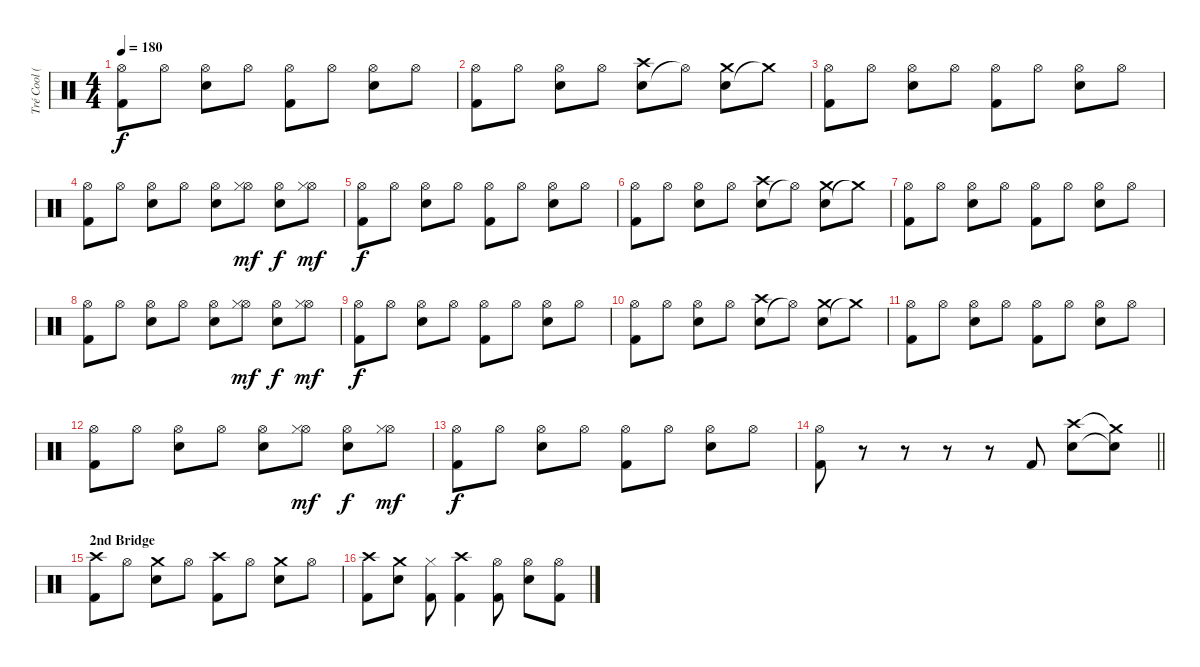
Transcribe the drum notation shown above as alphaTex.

\track ("Tré Cool (Drums)" "Tré Cool (") {instrument percussion}
\staff {score}
\articulation defaults
\ts (4 4)
\tempo 180
\clef neutral
\ks c
("Kick (hit) 2" "Hi-Hat (open)").8{dy f} "Hi-Hat (open)".8 ("Snare (hit) 2" "Hi-Hat (open)").8 "Hi-Hat (open)".8 ("Kick (hit) 2" "Hi-Hat (open)").8 "Hi-Hat (open)".8 ("Snare (hit) 2" "Hi-Hat (open)").8 "Hi-Hat (open)".8 |
("Kick (hit) 2" "Hi-Hat (open)").8 "Hi-Hat (open)".8 ("Snare (hit) 2" "Hi-Hat (open)").8 "Hi-Hat (open)".8 ("Snare (hit) 2" "Crash high (hit)").8 "Hi-Hat (open)"{t}.8 ("Snare (hit) 2" "Crash medium (hit)").8 "Crash medium (hit)"{t}.8 |
("Kick (hit) 2" "Hi-Hat (open)").8 "Hi-Hat (open)".8 ("Snare (hit) 2" "Hi-Hat (open)").8 "Hi-Hat (open)".8 ("Kick (hit) 2" "Hi-Hat (open)").8 "Hi-Hat (open)".8 ("Snare (hit) 2" "Hi-Hat (open)").8 "Hi-Hat (open)".8 |
("Kick (hit) 2" "Hi-Hat (open)").8 "Hi-Hat (open)".8 ("Snare (hit) 2" "Hi-Hat (open)").8 "Hi-Hat (open)".8 ("Snare (hit) 2" "Hi-Hat (open)").8 ("Hi-Hat (open)" "Hi-Hat (closed)").8{dy mf} ("Snare (hit) 2" "Hi-Hat (open)").8{dy f} ("Hi-Hat (open)" "Hi-Hat (closed)").8{dy mf} |
("Kick (hit) 2" "Hi-Hat (open)").8{dy f} "Hi-Hat (open)".8 ("Snare (hit) 2" "Hi-Hat (open)").8 "Hi-Hat (open)".8 ("Kick (hit) 2" "Hi-Hat (open)").8 "Hi-Hat (open)".8 ("Snare (hit) 2" "Hi-Hat (open)").8 "Hi-Hat (open)".8 |
("Kick (hit) 2" "Hi-Hat (open)").8 "Hi-Hat (open)".8 ("Snare (hit) 2" "Hi-Hat (open)").8 "Hi-Hat (open)".8 ("Snare (hit) 2" "Crash high (hit)").8 "Hi-Hat (open)"{t}.8 ("Snare (hit) 2" "Crash medium (hit)").8 "Crash medium (hit)"{t}.8 |
("Kick (hit) 2" "Hi-Hat (open)").8 "Hi-Hat (open)".8 ("Snare (hit) 2" "Hi-Hat (open)").8 "Hi-Hat (open)".8 ("Kick (hit) 2" "Hi-Hat (open)").8 "Hi-Hat (open)".8 ("Snare (hit) 2" "Hi-Hat (open)").8 "Hi-Hat (open)".8 |
("Kick (hit) 2" "Hi-Hat (open)").8 "Hi-Hat (open)".8 ("Snare (hit) 2" "Hi-Hat (open)").8 "Hi-Hat (open)".8 ("Snare (hit) 2" "Hi-Hat (open)").8 ("Hi-Hat (open)" "Hi-Hat (closed)").8{dy mf} ("Snare (hit) 2" "Hi-Hat (open)").8{dy f} ("Hi-Hat (open)" "Hi-Hat (closed)").8{dy mf} |
("Kick (hit) 2" "Hi-Hat (open)").8{dy f} "Hi-Hat (open)".8 ("Snare (hit) 2" "Hi-Hat (open)").8 "Hi-Hat (open)".8 ("Kick (hit) 2" "Hi-Hat (open)").8 "Hi-Hat (open)".8 ("Snare (hit) 2" "Hi-Hat (open)").8 "Hi-Hat (open)".8 |
("Kick (hit) 2" "Hi-Hat (open)").8 "Hi-Hat (open)".8 ("Snare (hit) 2" "Hi-Hat (open)").8 "Hi-Hat (open)".8 ("Snare (hit) 2" "Crash high (hit)").8 "Hi-Hat (open)"{t}.8 ("Snare (hit) 2" "Crash medium (hit)").8 "Crash medium (hit)"{t}.8 |
("Kick (hit) 2" "Hi-Hat (open)").8 "Hi-Hat (open)".8 ("Snare (hit) 2" "Hi-Hat (open)").8 "Hi-Hat (open)".8 ("Kick (hit) 2" "Hi-Hat (open)").8 "Hi-Hat (open)".8 ("Snare (hit) 2" "Hi-Hat (open)").8 "Hi-Hat (open)".8 |
("Kick (hit) 2" "Hi-Hat (open)").8 "Hi-Hat (open)".8 ("Snare (hit) 2" "Hi-Hat (open)").8 "Hi-Hat (open)".8 ("Snare (hit) 2" "Hi-Hat (open)").8 ("Hi-Hat (open)" "Hi-Hat (closed)").8{dy mf} ("Snare (hit) 2" "Hi-Hat (open)").8{dy f} ("Hi-Hat (open)" "Hi-Hat (closed)").8{dy mf} |
("Kick (hit) 2" "Hi-Hat (open)").8{dy f} "Hi-Hat (open)".8 ("Snare (hit) 2" "Hi-Hat (open)").8 "Hi-Hat (open)".8 ("Kick (hit) 2" "Hi-Hat (open)").8 "Hi-Hat (open)".8 ("Snare (hit) 2" "Hi-Hat (open)").8 "Hi-Hat (open)".8 |
\barLineRight lightlight
("Kick (hit) 2" "Hi-Hat (open)").8 r.8 r.8 r.8 r.8 "Kick (hit) 2".8 ("Snare (hit) 2" "Crash high (hit)").8 ("Snare (hit)"{t} "Crash medium (hit)"{t}).8 |
\section ("" "2nd Bridge")
("Kick (hit) 2" "Crash high (hit)").8 "Hi-Hat (open)".8 ("Snare (hit) 2" "Crash medium (hit)").8 "Hi-Hat (open)".8 ("Kick (hit) 2" "Crash high (hit)").8 "Hi-Hat (open)".8 ("Snare (hit) 2" "Crash medium (hit)").8 "Hi-Hat (open)".8 |
("Kick (hit) 2" "Crash high (hit)").8 ("Snare (hit) 2" "Crash medium (hit)").8 ("Kick (hit) 2" "Hi-Hat (closed)").8 ("Kick (hit) 2" "Crash high (hit)").4 ("Kick (hit) 2" "Hi-Hat (open)").8 ("Snare (hit) 2" "Hi-Hat (open)").8 ("Kick (hit) 2" "Hi-Hat (open)").8
